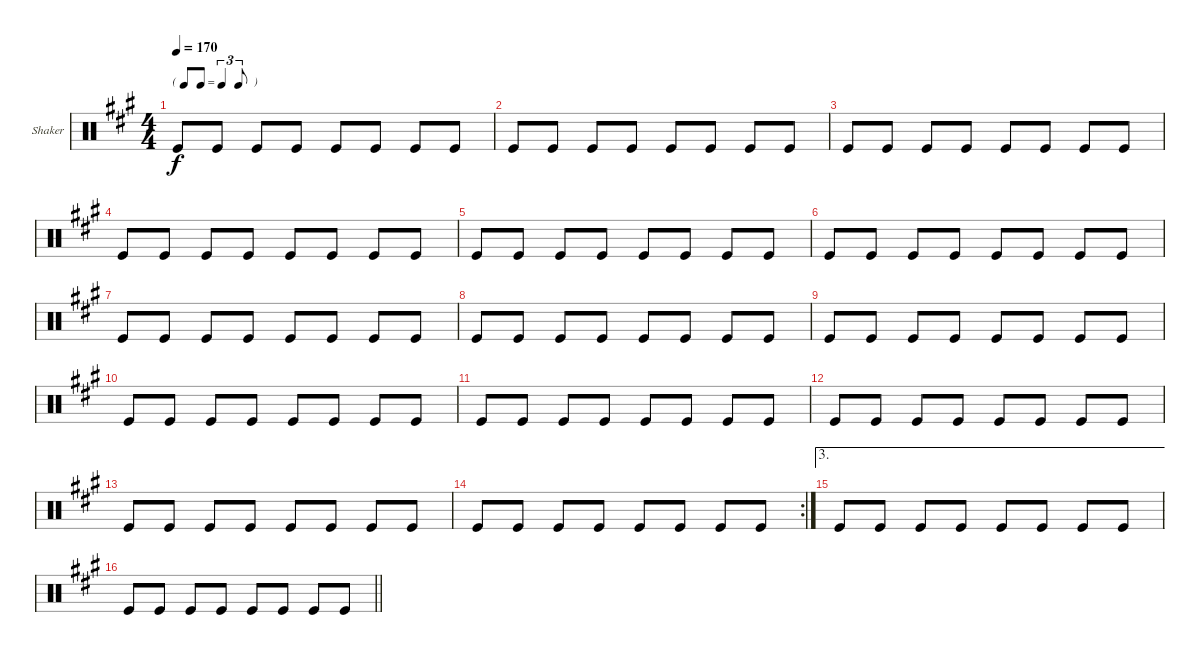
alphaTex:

\bracketExtendMode groupsimilarinstruments
\firstSystemTrackNameOrientation horizontal
\otherSystemsTrackNameOrientation horizontal
\track ("Shaker" "Shaker") {instrument percussion}
\staff {score}
\articulation defaults
\ts (4 4)
\tf triplet8th
\tempo 170
\clef neutral
\scale
0.333333
\ks a "Kick (hit)".8{dy f} "Kick (hit)".8 "Kick (hit)".8 "Kick (hit)".8 "Kick (hit)".8 "Kick (hit)".8 "Kick (hit)".8 "Kick (hit)".8
|
\scale
0.333333 "Kick (hit)".8 "Kick (hit)".8 "Kick (hit)".8 "Kick (hit)".8 "Kick (hit)".8 "Kick (hit)".8 "Kick (hit)".8 "Kick (hit)".8 |
\scale
0.333333 "Kick (hit)".8 "Kick (hit)".8 "Kick (hit)".8 "Kick (hit)".8 "Kick (hit)".8 "Kick (hit)".8 "Kick (hit)".8 "Kick (hit)".8 |
\scale
0.333333 "Kick (hit)".8 "Kick (hit)".8 "Kick (hit)".8 "Kick (hit)".8 "Kick (hit)".8 "Kick (hit)".8 "Kick (hit)".8 "Kick (hit)".8 |
\scale
0.333333 "Kick (hit)".8 "Kick (hit)".8 "Kick (hit)".8 "Kick (hit)".8 "Kick (hit)".8 "Kick (hit)".8 "Kick (hit)".8 "Kick (hit)".8 |
\scale
0.333333 "Kick (hit)".8 "Kick (hit)".8 "Kick (hit)".8 "Kick (hit)".8 "Kick (hit)".8 "Kick (hit)".8 "Kick (hit)".8 "Kick (hit)".8 |
\scale
0.333333 "Kick (hit)".8 "Kick (hit)".8 "Kick (hit)".8 "Kick (hit)".8 "Kick (hit)".8 "Kick (hit)".8 "Kick (hit)".8 "Kick (hit)".8 |
\scale
0.333333 "Kick (hit)".8 "Kick (hit)".8 "Kick (hit)".8 "Kick (hit)".8 "Kick (hit)".8 "Kick (hit)".8 "Kick (hit)".8 "Kick (hit)".8 |
\scale
0.333333 "Kick (hit)".8 "Kick (hit)".8 "Kick (hit)".8 "Kick (hit)".8 "Kick (hit)".8 "Kick (hit)".8 "Kick (hit)".8 "Kick (hit)".8 |
\scale
0.333333 "Kick (hit)".8 "Kick (hit)".8 "Kick (hit)".8 "Kick (hit)".8 "Kick (hit)".8 "Kick (hit)".8 "Kick (hit)".8 "Kick (hit)".8 |
\scale
0.333333 "Kick (hit)".8 "Kick (hit)".8 "Kick (hit)".8 "Kick (hit)".8 "Kick (hit)".8 "Kick (hit)".8 "Kick (hit)".8 "Kick (hit)".8 |
\scale
0.322034 "Kick (hit)".8 "Kick (hit)".8 "Kick (hit)".8 "Kick (hit)".8 "Kick (hit)".8 "Kick (hit)".8 "Kick (hit)".8 "Kick (hit)".8 |
\scale
0.322034 "Kick (hit)".8 "Kick (hit)".8 "Kick (hit)".8 "Kick (hit)".8 "Kick (hit)".8 "Kick (hit)".8 "Kick (hit)".8 "Kick (hit)".8 |
\rc 2
\scale
0.355932 "Kick (hit)".8 "Kick (hit)".8 "Kick (hit)".8 "Kick (hit)".8 "Kick (hit)".8 "Kick (hit)".8 "Kick (hit)".8 "Kick (hit)".8 |
\ae 3
\scale
0.333333 "Kick (hit)".8 "Kick (hit)".8 "Kick (hit)".8 "Kick (hit)".8 "Kick (hit)".8 "Kick (hit)".8 "Kick (hit)".8 "Kick (hit)".8 |
\scale
0.333333
\barLineRight lightlight "Kick (hit)".8 "Kick (hit)".8 "Kick (hit)".8 "Kick (hit)".8 "Kick (hit)".8 "Kick (hit)".8 "Kick (hit)".8 "Kick (hit)".8
